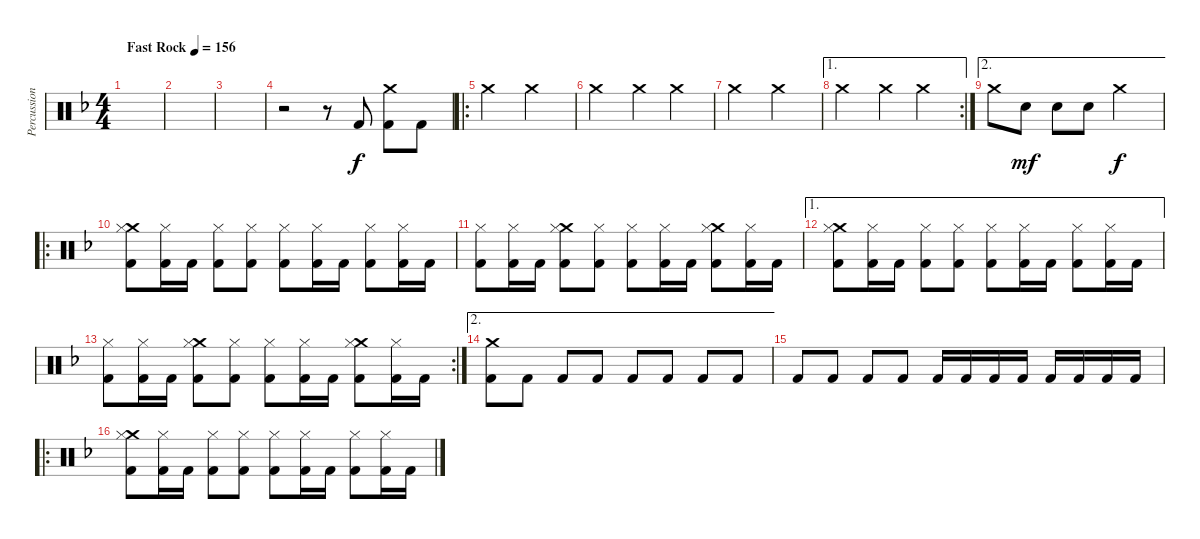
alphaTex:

\track ("Percussion" "Percussion") {instrument percussion}
\staff {score}
\articulation defaults
\ts (4 4)
\tempo (156 "Fast Rock")
\clef neutral
\ks f
|
|
|
r.2 r.8 "Kick (hit) 2".8 ("Crash medium (hit)" "Kick (hit) 2").8 "Kick (hit) 2".8 |
\ro "Crash medium (hit)".2 "Crash medium (hit)".2
|
"Crash medium (hit)".2 "Crash medium (hit)".4 "Crash medium (hit)".4 |
"Crash medium (hit)".2 "Crash medium (hit)".2 |
\ae 1
\rc 2 "Crash medium (hit)".2 "Crash medium (hit)".4 "Crash medium (hit)".4
|
\ae 2 "Crash medium (hit)".8 "Snare (hit) 2".8{dy mf} "Snare (hit) 2".8 "Snare (hit) 2".8 "Crash medium (hit)".2{dy f}
|
\ro
("Crash medium (hit)" "Kick (hit) 2" "Hi-Hat (closed)").8 ("Kick (hit) 2" "Hi-Hat (closed)").16 "Kick (hit) 2".16 ("Kick (hit) 2" "Hi-Hat (closed)").8 ("Kick (hit) 2" "Hi-Hat (closed)").8 ("Kick (hit) 2" "Hi-Hat (closed)").8 ("Kick (hit) 2" "Hi-Hat (closed)").16 "Kick (hit) 2".16 ("Kick (hit) 2" "Hi-Hat (closed)").8 ("Kick (hit) 2" "Hi-Hat (closed)").16 "Kick (hit) 2".16 |
("Kick (hit) 2" "Hi-Hat (closed)").8 ("Kick (hit) 2" "Hi-Hat (closed)").16 "Kick (hit) 2".16 ("Crash medium (hit)" "Kick (hit) 2" "Hi-Hat (closed)").8 ("Kick (hit) 2" "Hi-Hat (closed)").8 ("Kick (hit) 2" "Hi-Hat (closed)").8 ("Kick (hit) 2" "Hi-Hat (closed)").16 "Kick (hit) 2".16 ("Crash medium (hit)" "Kick (hit) 2" "Hi-Hat (closed)").8 ("Kick (hit) 2" "Hi-Hat (closed)").16 "Kick (hit) 2".16 |
\ae 1
("Crash medium (hit)" "Kick (hit) 2" "Hi-Hat (closed)").8 ("Kick (hit) 2" "Hi-Hat (closed)").16 "Kick (hit) 2".16 ("Kick (hit) 2" "Hi-Hat (closed)").8 ("Kick (hit) 2" "Hi-Hat (closed)").8 ("Kick (hit) 2" "Hi-Hat (closed)").8 ("Kick (hit) 2" "Hi-Hat (closed)").16 "Kick (hit) 2".16 ("Kick (hit) 2" "Hi-Hat (closed)").8 ("Kick (hit) 2" "Hi-Hat (closed)").16 "Kick (hit) 2".16 |
\rc 2
("Kick (hit) 2" "Hi-Hat (closed)").8 ("Kick (hit) 2" "Hi-Hat (closed)").16 "Kick (hit) 2".16 ("Crash medium (hit)" "Kick (hit) 2" "Hi-Hat (closed)").8 ("Kick (hit) 2" "Hi-Hat (closed)").8 ("Kick (hit) 2" "Hi-Hat (closed)").8 ("Kick (hit) 2" "Hi-Hat (closed)").16 "Kick (hit) 2".16 ("Crash medium (hit)" "Kick (hit) 2" "Hi-Hat (closed)").8 ("Kick (hit) 2" "Hi-Hat (closed)").16 "Kick (hit) 2".16 |
\ae 2
("Crash medium (hit)" "Kick (hit) 2").8 "Kick (hit) 2".8 "Kick (hit) 2".8 "Kick (hit) 2".8 "Kick (hit) 2".8 "Kick (hit) 2".8 "Kick (hit) 2".8 "Kick (hit) 2".8 |
"Kick (hit) 2".8 "Kick (hit) 2".8 "Kick (hit) 2".8 "Kick (hit) 2".8 "Kick (hit) 2".16 "Kick (hit) 2".16 "Kick (hit) 2".16 "Kick (hit) 2".16 "Kick (hit) 2".16 "Kick (hit) 2".16 "Kick (hit) 2".16 "Kick (hit) 2".16 |
\ro
("Crash medium (hit)" "Kick (hit) 2" "Hi-Hat (closed)").8 ("Kick (hit) 2" "Hi-Hat (closed)").16 "Kick (hit) 2".16 ("Kick (hit) 2" "Hi-Hat (closed)").8 ("Kick (hit) 2" "Hi-Hat (closed)").8 ("Kick (hit) 2" "Hi-Hat (closed)").8 ("Kick (hit) 2" "Hi-Hat (closed)").16 "Kick (hit) 2".16 ("Kick (hit) 2" "Hi-Hat (closed)").8 ("Kick (hit) 2" "Hi-Hat (closed)").16 "Kick (hit) 2".16
